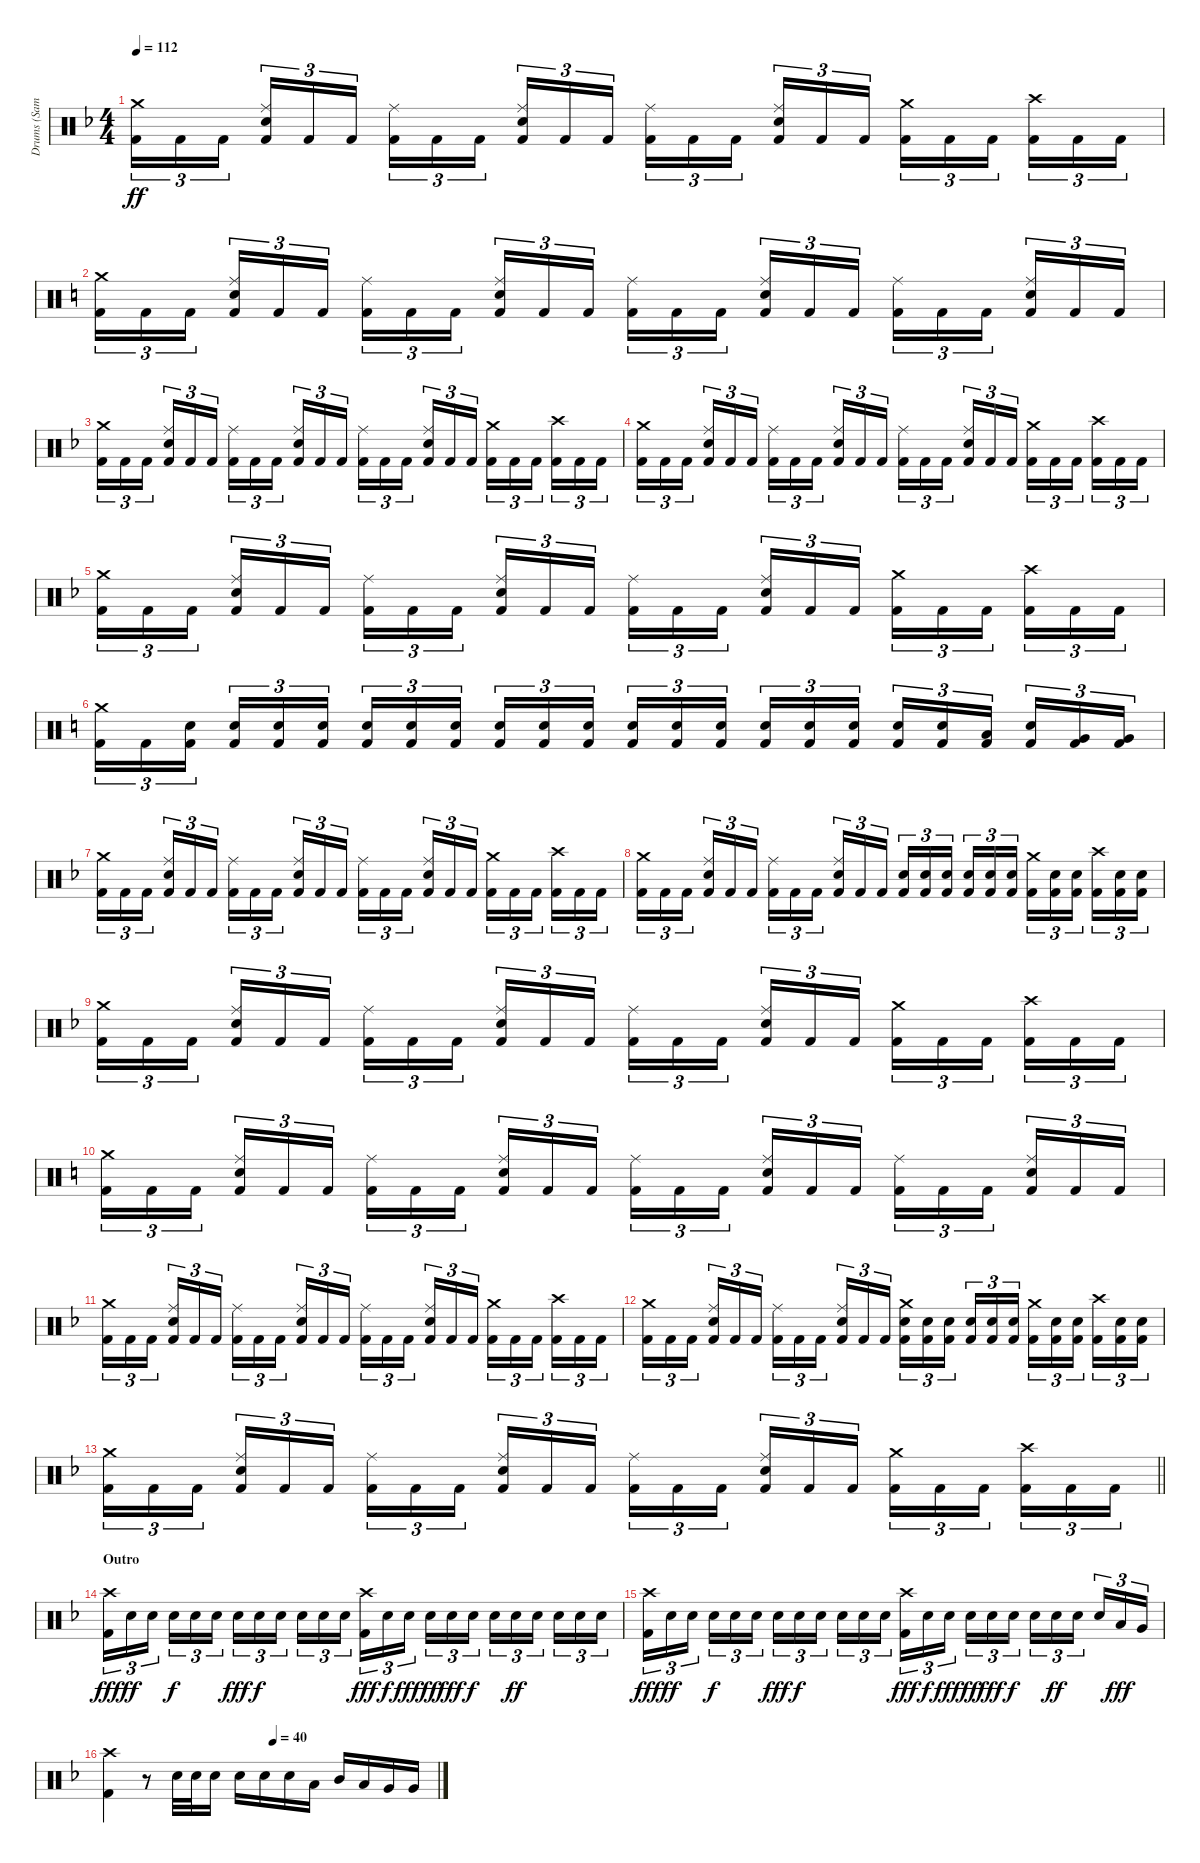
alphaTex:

\track ("Drums (Samuelson)" "Drums (Sam") {instrument percussion}
\staff {score}
\articulation defaults
\ts (4 4)
\tempo 112
\clef neutral
\ks f
("Crash medium (hit)" "Kick (hit) 2").16{tu (3 2) dy ff} "Kick (hit) 2".16{tu (3 2)} "Kick (hit) 2".16{tu (3 2) beam splitsecondary} ("Ride (middle)" "Snare (hit) 2" "Kick (hit) 2").16{tu (3 2)} "Kick (hit) 2".16{tu (3 2)} "Kick (hit) 2".16{tu (3 2)} ("Ride (middle)" "Kick (hit) 2").16{tu (3 2)} "Kick (hit) 2".16{tu (3 2)} "Kick (hit) 2".16{tu (3 2) beam splitsecondary} ("Ride (middle)" "Snare (hit) 2" "Kick (hit) 2").16{tu (3 2)} "Kick (hit) 2".16{tu (3 2)} "Kick (hit) 2".16{tu (3 2)} ("Ride (middle)" "Kick (hit) 2").16{tu (3 2)} "Kick (hit) 2".16{tu (3 2)} "Kick (hit) 2".16{tu (3 2) beam splitsecondary} ("Ride (middle)" "Snare (hit) 2" "Kick (hit) 2").16{tu (3 2)} "Kick (hit) 2".16{tu (3 2)} "Kick (hit) 2".16{tu (3 2)} ("Crash medium (hit)" "Kick (hit) 2").16{tu (3 2)} "Kick (hit) 2".16{tu (3 2)} "Kick (hit) 2".16{tu (3 2) beam splitsecondary} ("Crash high (hit)" "Kick (hit) 2").16{tu (3 2)} "Kick (hit) 2".16{tu (3 2)} "Kick (hit) 2".16{tu (3 2)} |
\ks c
("Crash medium (hit)" "Kick (hit) 2").16{tu (3 2)} "Kick (hit) 2".16{tu (3 2)} "Kick (hit) 2".16{tu (3 2) beam splitsecondary} ("Ride (middle)" "Snare (hit) 2" "Kick (hit) 2").16{tu (3 2)} "Kick (hit) 2".16{tu (3 2)} "Kick (hit) 2".16{tu (3 2)} ("Ride (middle)" "Kick (hit) 2").16{tu (3 2)} "Kick (hit) 2".16{tu (3 2)} "Kick (hit) 2".16{tu (3 2) beam splitsecondary} ("Ride (middle)" "Snare (hit) 2" "Kick (hit) 2").16{tu (3 2)} "Kick (hit) 2".16{tu (3 2)} "Kick (hit) 2".16{tu (3 2)} ("Ride (middle)" "Kick (hit) 2").16{tu (3 2)} "Kick (hit) 2".16{tu (3 2)} "Kick (hit) 2".16{tu (3 2) beam splitsecondary} ("Ride (middle)" "Snare (hit) 2" "Kick (hit) 2").16{tu (3 2)} "Kick (hit) 2".16{tu (3 2)} "Kick (hit) 2".16{tu (3 2)} ("Ride (middle)" "Kick (hit) 2").16{tu (3 2)} "Kick (hit) 2".16{tu (3 2)} "Kick (hit) 2".16{tu (3 2) beam splitsecondary} ("Ride (middle)" "Snare (hit) 2" "Kick (hit) 2").16{tu (3 2)} "Kick (hit) 2".16{tu (3 2)} "Kick (hit) 2".16{tu (3 2)} |
\ks f
("Crash medium (hit)" "Kick (hit) 2").16{tu (3 2)} "Kick (hit) 2".16{tu (3 2)} "Kick (hit) 2".16{tu (3 2) beam splitsecondary} ("Ride (middle)" "Snare (hit) 2" "Kick (hit) 2").16{tu (3 2)} "Kick (hit) 2".16{tu (3 2)} "Kick (hit) 2".16{tu (3 2)} ("Ride (middle)" "Kick (hit) 2").16{tu (3 2)} "Kick (hit) 2".16{tu (3 2)} "Kick (hit) 2".16{tu (3 2) beam splitsecondary} ("Ride (middle)" "Snare (hit) 2" "Kick (hit) 2").16{tu (3 2)} "Kick (hit) 2".16{tu (3 2)} "Kick (hit) 2".16{tu (3 2)} ("Ride (middle)" "Kick (hit) 2").16{tu (3 2)} "Kick (hit) 2".16{tu (3 2)} "Kick (hit) 2".16{tu (3 2) beam splitsecondary} ("Ride (middle)" "Snare (hit) 2" "Kick (hit) 2").16{tu (3 2)} "Kick (hit) 2".16{tu (3 2)} "Kick (hit) 2".16{tu (3 2)} ("Crash medium (hit)" "Kick (hit) 2").16{tu (3 2)} "Kick (hit) 2".16{tu (3 2)} "Kick (hit) 2".16{tu (3 2) beam splitsecondary} ("Crash high (hit)" "Kick (hit) 2").16{tu (3 2)} "Kick (hit) 2".16{tu (3 2)} "Kick (hit) 2".16{tu (3 2)} |
("Crash medium (hit)" "Kick (hit) 2").16{tu (3 2)} "Kick (hit) 2".16{tu (3 2)} "Kick (hit) 2".16{tu (3 2) beam splitsecondary} ("Ride (middle)" "Snare (hit) 2" "Kick (hit) 2").16{tu (3 2)} "Kick (hit) 2".16{tu (3 2)} "Kick (hit) 2".16{tu (3 2)} ("Ride (middle)" "Kick (hit) 2").16{tu (3 2)} "Kick (hit) 2".16{tu (3 2)} "Kick (hit) 2".16{tu (3 2) beam splitsecondary} ("Ride (middle)" "Snare (hit) 2" "Kick (hit) 2").16{tu (3 2)} "Kick (hit) 2".16{tu (3 2)} "Kick (hit) 2".16{tu (3 2)} ("Ride (middle)" "Kick (hit) 2").16{tu (3 2)} "Kick (hit) 2".16{tu (3 2)} "Kick (hit) 2".16{tu (3 2) beam splitsecondary} ("Ride (middle)" "Snare (hit) 2" "Kick (hit) 2").16{tu (3 2)} "Kick (hit) 2".16{tu (3 2)} "Kick (hit) 2".16{tu (3 2)} ("Crash medium (hit)" "Kick (hit) 2").16{tu (3 2)} "Kick (hit) 2".16{tu (3 2)} "Kick (hit) 2".16{tu (3 2) beam splitsecondary} ("Crash high (hit)" "Kick (hit) 2").16{tu (3 2)} "Kick (hit) 2".16{tu (3 2)} "Kick (hit) 2".16{tu (3 2)} |
("Crash medium (hit)" "Kick (hit) 2").16{tu (3 2)} "Kick (hit) 2".16{tu (3 2)} "Kick (hit) 2".16{tu (3 2) beam splitsecondary} ("Ride (middle)" "Snare (hit) 2" "Kick (hit) 2").16{tu (3 2)} "Kick (hit) 2".16{tu (3 2)} "Kick (hit) 2".16{tu (3 2)} ("Ride (middle)" "Kick (hit) 2").16{tu (3 2)} "Kick (hit) 2".16{tu (3 2)} "Kick (hit) 2".16{tu (3 2) beam splitsecondary} ("Ride (middle)" "Snare (hit) 2" "Kick (hit) 2").16{tu (3 2)} "Kick (hit) 2".16{tu (3 2)} "Kick (hit) 2".16{tu (3 2)} ("Ride (middle)" "Kick (hit) 2").16{tu (3 2)} "Kick (hit) 2".16{tu (3 2)} "Kick (hit) 2".16{tu (3 2) beam splitsecondary} ("Ride (middle)" "Snare (hit) 2" "Kick (hit) 2").16{tu (3 2)} "Kick (hit) 2".16{tu (3 2)} "Kick (hit) 2".16{tu (3 2)} ("Crash medium (hit)" "Kick (hit) 2").16{tu (3 2)} "Kick (hit) 2".16{tu (3 2)} "Kick (hit) 2".16{tu (3 2) beam splitsecondary} ("Crash high (hit)" "Kick (hit) 2").16{tu (3 2)} "Kick (hit) 2".16{tu (3 2)} "Kick (hit) 2".16{tu (3 2)} |
\ks c
("Crash medium (hit)" "Kick (hit) 2").16{tu (3 2)} "Kick (hit) 2".16{tu (3 2)} ("Snare (hit) 2" "Kick (hit) 2").16{tu (3 2) beam splitsecondary} ("Snare (hit) 2" "Kick (hit) 2").16{tu (3 2)} ("Snare (hit) 2" "Kick (hit) 2").16{tu (3 2)} ("Snare (hit) 2" "Kick (hit) 2").16{tu (3 2)} ("Snare (hit) 2" "Kick (hit) 2").16{tu (3 2)} ("Snare (hit) 2" "Kick (hit) 2").16{tu (3 2)} ("Snare (hit) 2" "Kick (hit) 2").16{tu (3 2) beam splitsecondary} ("Snare (hit) 2" "Kick (hit) 2").16{tu (3 2)} ("Snare (hit) 2" "Kick (hit) 2").16{tu (3 2)} ("Snare (hit) 2" "Kick (hit) 2").16{tu (3 2)} ("Snare (hit) 2" "Kick (hit) 2").16{tu (3 2)} ("Snare (hit) 2" "Kick (hit) 2").16{tu (3 2)} ("Snare (hit) 2" "Kick (hit) 2").16{tu (3 2) beam splitsecondary} ("Snare (hit) 2" "Kick (hit) 2").16{tu (3 2)} ("Snare (hit) 2" "Kick (hit) 2").16{tu (3 2)} ("Snare (hit) 2" "Kick (hit) 2").16{tu (3 2)} ("Snare (hit) 2" "Kick (hit) 2").16{tu (3 2)} ("Snare (hit) 2" "Kick (hit) 2").16{tu (3 2)} ("Low Tom (hit)" "Kick (hit) 2").16{tu (3 2) beam splitsecondary} ("Snare (hit) 2" "Kick (hit) 2").16{tu (3 2)} ("Very Low Tom (hit)" "Kick (hit) 2").16{tu (3 2)} ("Very Low Tom (hit)" "Kick (hit) 2").16{tu (3 2)} |
\ks f
("Crash medium (hit)" "Kick (hit) 2").16{tu (3 2)} "Kick (hit) 2".16{tu (3 2)} "Kick (hit) 2".16{tu (3 2) beam splitsecondary} ("Ride (middle)" "Snare (hit) 2" "Kick (hit) 2").16{tu (3 2)} "Kick (hit) 2".16{tu (3 2)} "Kick (hit) 2".16{tu (3 2)} ("Ride (middle)" "Kick (hit) 2").16{tu (3 2)} "Kick (hit) 2".16{tu (3 2)} "Kick (hit) 2".16{tu (3 2) beam splitsecondary} ("Ride (middle)" "Snare (hit) 2" "Kick (hit) 2").16{tu (3 2)} "Kick (hit) 2".16{tu (3 2)} "Kick (hit) 2".16{tu (3 2)} ("Ride (middle)" "Kick (hit) 2").16{tu (3 2)} "Kick (hit) 2".16{tu (3 2)} "Kick (hit) 2".16{tu (3 2) beam splitsecondary} ("Ride (middle)" "Snare (hit) 2" "Kick (hit) 2").16{tu (3 2)} "Kick (hit) 2".16{tu (3 2)} "Kick (hit) 2".16{tu (3 2)} ("Crash medium (hit)" "Kick (hit) 2").16{tu (3 2)} "Kick (hit) 2".16{tu (3 2)} "Kick (hit) 2".16{tu (3 2) beam splitsecondary} ("Crash high (hit)" "Kick (hit) 2").16{tu (3 2)} "Kick (hit) 2".16{tu (3 2)} "Kick (hit) 2".16{tu (3 2)} |
("Crash medium (hit)" "Kick (hit) 2").16{tu (3 2)} "Kick (hit) 2".16{tu (3 2)} "Kick (hit) 2".16{tu (3 2) beam splitsecondary} ("Ride (middle)" "Snare (hit) 2" "Kick (hit) 2").16{tu (3 2)} "Kick (hit) 2".16{tu (3 2)} "Kick (hit) 2".16{tu (3 2)} ("Ride (middle)" "Kick (hit) 2").16{tu (3 2)} "Kick (hit) 2".16{tu (3 2)} "Kick (hit) 2".16{tu (3 2) beam splitsecondary} ("Ride (middle)" "Snare (hit) 2" "Kick (hit) 2").16{tu (3 2)} "Kick (hit) 2".16{tu (3 2)} "Kick (hit) 2".16{tu (3 2)} ("Snare (hit) 2" "Kick (hit) 2").16{tu (3 2)} ("Snare (hit) 2" "Kick (hit) 2").16{tu (3 2)} ("Snare (hit) 2" "Kick (hit) 2").16{tu (3 2) beam splitsecondary} ("Snare (hit) 2" "Kick (hit) 2").16{tu (3 2)} ("Snare (hit) 2" "Kick (hit) 2").16{tu (3 2)} ("Snare (hit) 2" "Kick (hit) 2").16{tu (3 2)} ("Crash medium (hit)" "Kick (hit) 2").16{tu (3 2)} ("Snare (hit) 2" "Kick (hit) 2").16{tu (3 2)} ("Snare (hit) 2" "Kick (hit) 2").16{tu (3 2) beam splitsecondary} ("Crash high (hit)" "Kick (hit) 2").16{tu (3 2)} ("Snare (hit) 2" "Kick (hit) 2").16{tu (3 2)} ("Snare (hit) 2" "Kick (hit) 2").16{tu (3 2)} |
("Crash medium (hit)" "Kick (hit) 2").16{tu (3 2)} "Kick (hit) 2".16{tu (3 2)} "Kick (hit) 2".16{tu (3 2) beam splitsecondary} ("Ride (middle)" "Snare (hit) 2" "Kick (hit) 2").16{tu (3 2)} "Kick (hit) 2".16{tu (3 2)} "Kick (hit) 2".16{tu (3 2)} ("Ride (middle)" "Kick (hit) 2").16{tu (3 2)} "Kick (hit) 2".16{tu (3 2)} "Kick (hit) 2".16{tu (3 2) beam splitsecondary} ("Ride (middle)" "Snare (hit) 2" "Kick (hit) 2").16{tu (3 2)} "Kick (hit) 2".16{tu (3 2)} "Kick (hit) 2".16{tu (3 2)} ("Ride (middle)" "Kick (hit) 2").16{tu (3 2)} "Kick (hit) 2".16{tu (3 2)} "Kick (hit) 2".16{tu (3 2) beam splitsecondary} ("Ride (middle)" "Snare (hit) 2" "Kick (hit) 2").16{tu (3 2)} "Kick (hit) 2".16{tu (3 2)} "Kick (hit) 2".16{tu (3 2)} ("Crash medium (hit)" "Kick (hit) 2").16{tu (3 2)} "Kick (hit) 2".16{tu (3 2)} "Kick (hit) 2".16{tu (3 2) beam splitsecondary} ("Crash high (hit)" "Kick (hit) 2").16{tu (3 2)} "Kick (hit) 2".16{tu (3 2)} "Kick (hit) 2".16{tu (3 2)} |
\ks c
("Crash medium (hit)" "Kick (hit) 2").16{tu (3 2)} "Kick (hit) 2".16{tu (3 2)} "Kick (hit) 2".16{tu (3 2) beam splitsecondary} ("Ride (middle)" "Snare (hit) 2" "Kick (hit) 2").16{tu (3 2)} "Kick (hit) 2".16{tu (3 2)} "Kick (hit) 2".16{tu (3 2)} ("Ride (middle)" "Kick (hit) 2").16{tu (3 2)} "Kick (hit) 2".16{tu (3 2)} "Kick (hit) 2".16{tu (3 2) beam splitsecondary} ("Ride (middle)" "Snare (hit) 2" "Kick (hit) 2").16{tu (3 2)} "Kick (hit) 2".16{tu (3 2)} "Kick (hit) 2".16{tu (3 2)} ("Ride (middle)" "Kick (hit) 2").16{tu (3 2)} "Kick (hit) 2".16{tu (3 2)} "Kick (hit) 2".16{tu (3 2) beam splitsecondary} ("Ride (middle)" "Snare (hit) 2" "Kick (hit) 2").16{tu (3 2)} "Kick (hit) 2".16{tu (3 2)} "Kick (hit) 2".16{tu (3 2)} ("Ride (middle)" "Kick (hit) 2").16{tu (3 2)} "Kick (hit) 2".16{tu (3 2)} "Kick (hit) 2".16{tu (3 2) beam splitsecondary} ("Ride (middle)" "Snare (hit) 2" "Kick (hit) 2").16{tu (3 2)} "Kick (hit) 2".16{tu (3 2)} "Kick (hit) 2".16{tu (3 2)} |
\ks f
("Crash medium (hit)" "Kick (hit) 2").16{tu (3 2)} "Kick (hit) 2".16{tu (3 2)} "Kick (hit) 2".16{tu (3 2) beam splitsecondary} ("Ride (middle)" "Snare (hit) 2" "Kick (hit) 2").16{tu (3 2)} "Kick (hit) 2".16{tu (3 2)} "Kick (hit) 2".16{tu (3 2)} ("Ride (middle)" "Kick (hit) 2").16{tu (3 2)} "Kick (hit) 2".16{tu (3 2)} "Kick (hit) 2".16{tu (3 2) beam splitsecondary} ("Ride (middle)" "Snare (hit) 2" "Kick (hit) 2").16{tu (3 2)} "Kick (hit) 2".16{tu (3 2)} "Kick (hit) 2".16{tu (3 2)} ("Ride (middle)" "Kick (hit) 2").16{tu (3 2)} "Kick (hit) 2".16{tu (3 2)} "Kick (hit) 2".16{tu (3 2) beam splitsecondary} ("Ride (middle)" "Snare (hit) 2" "Kick (hit) 2").16{tu (3 2)} "Kick (hit) 2".16{tu (3 2)} "Kick (hit) 2".16{tu (3 2)} ("Crash medium (hit)" "Kick (hit) 2").16{tu (3 2)} "Kick (hit) 2".16{tu (3 2)} "Kick (hit) 2".16{tu (3 2) beam splitsecondary} ("Crash high (hit)" "Kick (hit) 2").16{tu (3 2)} "Kick (hit) 2".16{tu (3 2)} "Kick (hit) 2".16{tu (3 2)} |
("Crash medium (hit)" "Kick (hit) 2").16{tu (3 2)} "Kick (hit) 2".16{tu (3 2)} "Kick (hit) 2".16{tu (3 2) beam splitsecondary} ("Ride (middle)" "Snare (hit) 2" "Kick (hit) 2").16{tu (3 2)} "Kick (hit) 2".16{tu (3 2)} "Kick (hit) 2".16{tu (3 2)} ("Ride (middle)" "Kick (hit) 2").16{tu (3 2)} "Kick (hit) 2".16{tu (3 2)} "Kick (hit) 2".16{tu (3 2) beam splitsecondary} ("Ride (middle)" "Snare (hit) 2" "Kick (hit) 2").16{tu (3 2)} "Kick (hit) 2".16{tu (3 2)} "Kick (hit) 2".16{tu (3 2)} ("Crash medium (hit)" "Snare (hit) 2" "Kick (hit) 2").16{tu (3 2)} ("Snare (hit) 2" "Kick (hit) 2").16{tu (3 2)} ("Snare (hit) 2" "Kick (hit) 2").16{tu (3 2) beam splitsecondary} ("Snare (hit) 2" "Kick (hit) 2").16{tu (3 2)} ("Snare (hit) 2" "Kick (hit) 2").16{tu (3 2)} ("Snare (hit) 2" "Kick (hit) 2").16{tu (3 2)} ("Crash medium (hit)" "Kick (hit) 2").16{tu (3 2)} ("Snare (hit) 2" "Kick (hit) 2").16{tu (3 2)} ("Snare (hit) 2" "Kick (hit) 2").16{tu (3 2) beam splitsecondary} ("Crash high (hit)" "Kick (hit) 2").16{tu (3 2)} ("Snare (hit) 2" "Kick (hit) 2").16{tu (3 2)} ("Snare (hit) 2" "Kick (hit) 2").16{tu (3 2)} |
\barLineRight lightlight
("Crash medium (hit)" "Kick (hit) 2").16{tu (3 2)} "Kick (hit) 2".16{tu (3 2)} "Kick (hit) 2".16{tu (3 2) beam splitsecondary} ("Ride (middle)" "Snare (hit) 2" "Kick (hit) 2").16{tu (3 2)} "Kick (hit) 2".16{tu (3 2)} "Kick (hit) 2".16{tu (3 2)} ("Ride (middle)" "Kick (hit) 2").16{tu (3 2)} "Kick (hit) 2".16{tu (3 2)} "Kick (hit) 2".16{tu (3 2) beam splitsecondary} ("Ride (middle)" "Snare (hit) 2" "Kick (hit) 2").16{tu (3 2)} "Kick (hit) 2".16{tu (3 2)} "Kick (hit) 2".16{tu (3 2)} ("Ride (middle)" "Kick (hit) 2").16{tu (3 2)} "Kick (hit) 2".16{tu (3 2)} "Kick (hit) 2".16{tu (3 2) beam splitsecondary} ("Ride (middle)" "Snare (hit) 2" "Kick (hit) 2").16{tu (3 2)} "Kick (hit) 2".16{tu (3 2)} "Kick (hit) 2".16{tu (3 2)} ("Crash medium (hit)" "Kick (hit) 2").16{tu (3 2)} "Kick (hit) 2".16{tu (3 2)} "Kick (hit) 2".16{tu (3 2) beam splitsecondary} ("Crash high (hit)" "Kick (hit) 2").16{tu (3 2)} "Kick (hit) 2".16{tu (3 2)} "Kick (hit) 2".16{tu (3 2)} |
\section ("" "Outro")
("Crash high (hit)" "Kick (hit) 2").16{tu (3 2) dy fff} "Snare (hit) 2".16{tu (3 2) dy ff} "Snare (hit) 2".16{tu (3 2) beam splitsecondary} "Snare (hit) 2".16{tu (3 2) dy f} "Snare (hit) 2".16{tu (3 2)} "Snare (hit) 2".16{tu (3 2)} "Snare (hit) 2".16{tu (3 2) dy fff} "Snare (hit) 2".16{tu (3 2) dy f} "Snare (hit) 2".16{tu (3 2) beam splitsecondary} "Snare (hit) 2".16{tu (3 2)} "Snare (hit) 2".16{tu (3 2)} "Snare (hit) 2".16{tu (3 2)} ("Crash high (hit)" "Kick (hit) 2").16{tu (3 2) dy fff} "Snare (hit) 2".16{tu (3 2) dy f} "Snare (hit) 2".16{tu (3 2) dy fff beam splitsecondary} "Snare (hit) 2".16{tu (3 2) dy ff} "Snare (hit) 2".16{tu (3 2) dy fff} "Snare (hit) 2".16{tu (3 2) dy f} "Snare (hit) 2".16{tu (3 2)} "Snare (hit) 2".16{tu (3 2) dy ff} "Snare (hit) 2".16{tu (3 2) beam splitsecondary} "Snare (hit) 2".16{tu (3 2)} "Snare (hit) 2".16{tu (3 2)} "Snare (hit) 2".16{tu (3 2)} |
("Crash high (hit)" "Kick (hit) 2").16{tu (3 2) dy fff} "Snare (hit) 2".16{tu (3 2) dy ff} "Snare (hit) 2".16{tu (3 2) beam splitsecondary} "Snare (hit) 2".16{tu (3 2) dy f} "Snare (hit) 2".16{tu (3 2)} "Snare (hit) 2".16{tu (3 2)} "Snare (hit) 2".16{tu (3 2) dy fff} "Snare (hit) 2".16{tu (3 2) dy f} "Snare (hit) 2".16{tu (3 2) beam splitsecondary} "Snare (hit) 2".16{tu (3 2)} "Snare (hit) 2".16{tu (3 2)} "Snare (hit) 2".16{tu (3 2)} ("Crash high (hit)" "Kick (hit) 2").16{tu (3 2) dy fff} "Snare (hit) 2".16{tu (3 2) dy f} "Snare (hit) 2".16{tu (3 2) dy fff beam splitsecondary} "Snare (hit) 2".16{tu (3 2) dy ff} "Snare (hit) 2".16{tu (3 2) dy fff} "Snare (hit) 2".16{tu (3 2) dy f} "Snare (hit) 2".16{tu (3 2)} "Snare (hit) 2".16{tu (3 2) dy ff} "Snare (hit) 2".16{tu (3 2) beam splitsecondary} "Snare (hit) 2".16{tu (3 2)} "Low Tom (hit)".16{tu (3 2) dy fff} "Very Low Tom (hit)".16{tu (3 2)} |
\tempo (40 0.5)
("Crash high (hit)" "Kick (hit) 2").4 r.8 "Snare (hit) 2".32 "Snare (hit) 2".32 "Snare (hit) 2".16 "Snare (hit) 2".16 "Snare (hit) 2".16 "Snare (hit) 2".16 "Low Tom (hit)".16 "Mid Tom (hit)".16 "Low Tom (hit)".16 "Very Low Tom (hit)".16 "Very Low Tom (hit)".16
